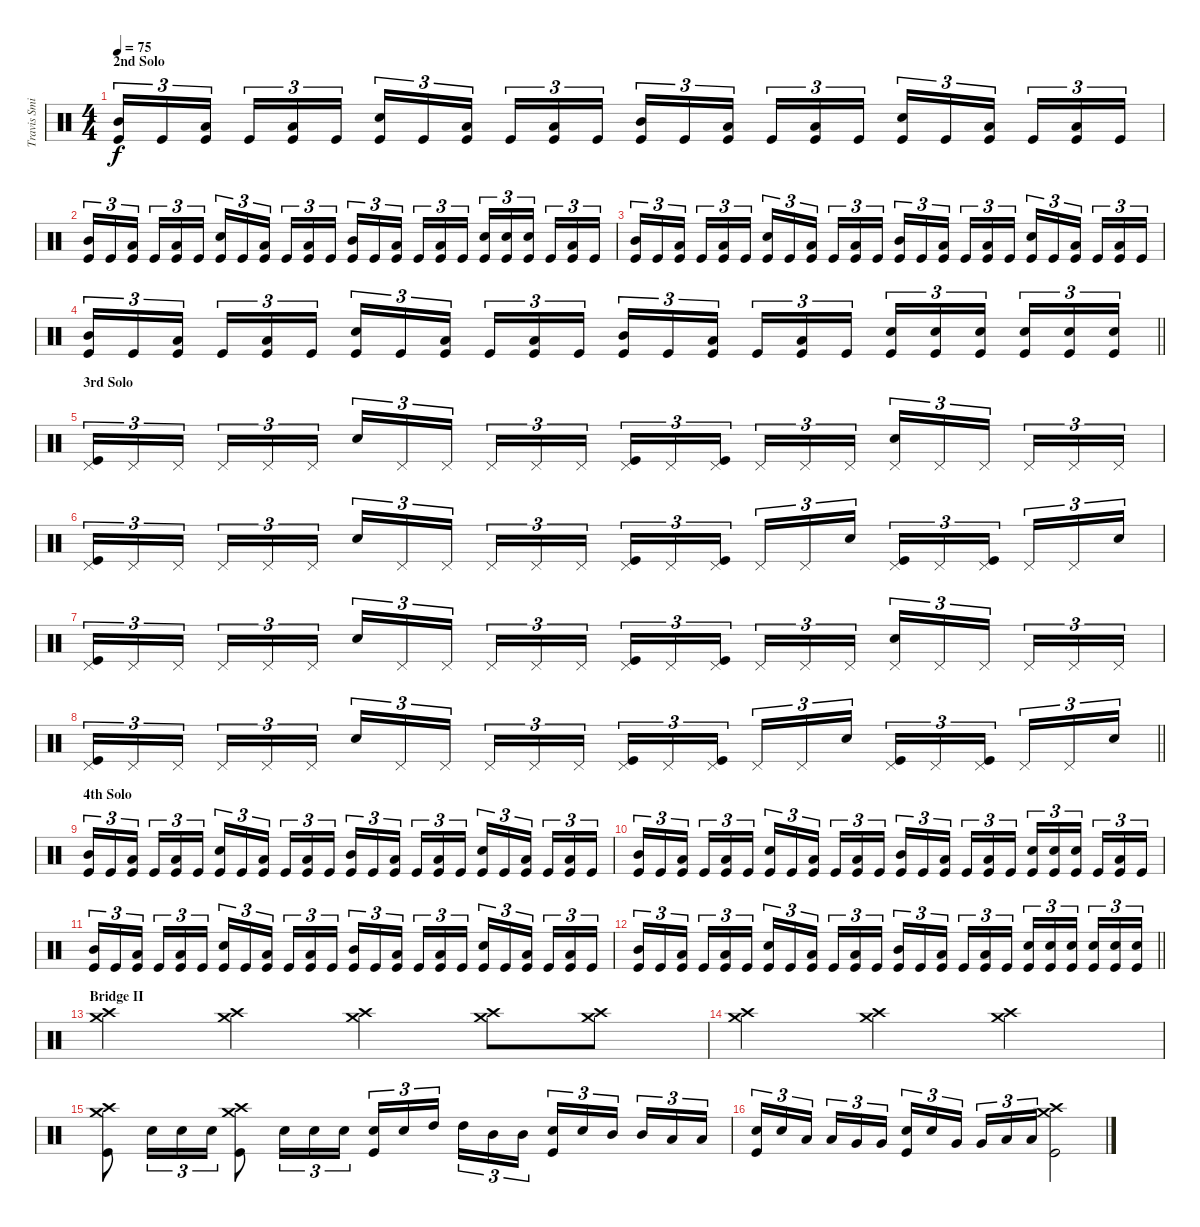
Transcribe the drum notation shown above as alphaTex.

\track ("Travis Smith" "Travis Smi") {instrument percussion}
\staff {score}
\articulation defaults
\ts (4 4)
\section ("" "2nd Solo")
\tempo 75
\clef neutral
\ks c
("Mid Tom (hit)" "Kick (hit)").16{tu (3 2) dy f} "Kick (hit)".16{tu (3 2)} ("Low Tom (hit)" "Kick (hit)").16{tu (3 2) beam splitsecondary} "Kick (hit)".16{tu (3 2)} ("Low Floor Tom (hit)" "Kick (hit)").16{tu (3 2)} "Kick (hit)".16{tu (3 2)} ("Snare (hit) 2" "Kick (hit)").16{tu (3 2)} "Kick (hit)".16{tu (3 2)} ("Low Tom (hit)" "Kick (hit)").16{tu (3 2) beam splitsecondary} "Kick (hit)".16{tu (3 2)} ("Low Floor Tom (hit)" "Kick (hit)").16{tu (3 2)} "Kick (hit)".16{tu (3 2)} ("Mid Tom (hit)" "Kick (hit)").16{tu (3 2)} "Kick (hit)".16{tu (3 2)} ("Low Tom (hit)" "Kick (hit)").16{tu (3 2) beam splitsecondary} "Kick (hit)".16{tu (3 2)} ("Low Floor Tom (hit)" "Kick (hit)").16{tu (3 2)} "Kick (hit)".16{tu (3 2)} ("Snare (hit) 2" "Kick (hit)").16{tu (3 2)} "Kick (hit)".16{tu (3 2)} ("Low Tom (hit)" "Kick (hit)").16{tu (3 2) beam splitsecondary} "Kick (hit)".16{tu (3 2)} ("Low Floor Tom (hit)" "Kick (hit)").16{tu (3 2)} "Kick (hit)".16{tu (3 2)} |
("Mid Tom (hit)" "Kick (hit)").16{tu (3 2)} "Kick (hit)".16{tu (3 2)} ("Low Tom (hit)" "Kick (hit)").16{tu (3 2) beam splitsecondary} "Kick (hit)".16{tu (3 2)} ("Low Floor Tom (hit)" "Kick (hit)").16{tu (3 2)} "Kick (hit)".16{tu (3 2)} ("Snare (hit) 2" "Kick (hit)").16{tu (3 2)} "Kick (hit)".16{tu (3 2)} ("Low Tom (hit)" "Kick (hit)").16{tu (3 2) beam splitsecondary} "Kick (hit)".16{tu (3 2)} ("Low Floor Tom (hit)" "Kick (hit)").16{tu (3 2)} "Kick (hit)".16{tu (3 2)} ("Mid Tom (hit)" "Kick (hit)").16{tu (3 2)} "Kick (hit)".16{tu (3 2)} ("Low Tom (hit)" "Kick (hit)").16{tu (3 2) beam splitsecondary} "Kick (hit)".16{tu (3 2)} ("Low Floor Tom (hit)" "Kick (hit)").16{tu (3 2)} "Kick (hit)".16{tu (3 2)} ("Snare (hit) 2" "Kick (hit)").16{tu (3 2)} ("Snare (hit) 2" "Kick (hit)").16{tu (3 2)} ("Snare (hit) 2" "Kick (hit)").16{tu (3 2) beam splitsecondary} "Kick (hit)".16{tu (3 2)} ("Low Floor Tom (hit)" "Kick (hit)").16{tu (3 2)} "Kick (hit)".16{tu (3 2)} |
("Mid Tom (hit)" "Kick (hit)").16{tu (3 2)} "Kick (hit)".16{tu (3 2)} ("Low Tom (hit)" "Kick (hit)").16{tu (3 2) beam splitsecondary} "Kick (hit)".16{tu (3 2)} ("Low Floor Tom (hit)" "Kick (hit)").16{tu (3 2)} "Kick (hit)".16{tu (3 2)} ("Snare (hit) 2" "Kick (hit)").16{tu (3 2)} "Kick (hit)".16{tu (3 2)} ("Low Tom (hit)" "Kick (hit)").16{tu (3 2) beam splitsecondary} "Kick (hit)".16{tu (3 2)} ("Low Floor Tom (hit)" "Kick (hit)").16{tu (3 2)} "Kick (hit)".16{tu (3 2)} ("Mid Tom (hit)" "Kick (hit)").16{tu (3 2)} "Kick (hit)".16{tu (3 2)} ("Low Tom (hit)" "Kick (hit)").16{tu (3 2) beam splitsecondary} "Kick (hit)".16{tu (3 2)} ("Low Floor Tom (hit)" "Kick (hit)").16{tu (3 2)} "Kick (hit)".16{tu (3 2)} ("Snare (hit) 2" "Kick (hit)").16{tu (3 2)} "Kick (hit)".16{tu (3 2)} ("Low Tom (hit)" "Kick (hit)").16{tu (3 2) beam splitsecondary} "Kick (hit)".16{tu (3 2)} ("Low Floor Tom (hit)" "Kick (hit)").16{tu (3 2)} "Kick (hit)".16{tu (3 2)} |
\barLineRight lightlight
("Mid Tom (hit)" "Kick (hit)").16{tu (3 2)} "Kick (hit)".16{tu (3 2)} ("Low Tom (hit)" "Kick (hit)").16{tu (3 2) beam splitsecondary} "Kick (hit)".16{tu (3 2)} ("Low Floor Tom (hit)" "Kick (hit)").16{tu (3 2)} "Kick (hit)".16{tu (3 2)} ("Snare (hit) 2" "Kick (hit)").16{tu (3 2)} "Kick (hit)".16{tu (3 2)} ("Low Tom (hit)" "Kick (hit)").16{tu (3 2) beam splitsecondary} "Kick (hit)".16{tu (3 2)} ("Low Floor Tom (hit)" "Kick (hit)").16{tu (3 2)} "Kick (hit)".16{tu (3 2)} ("Mid Tom (hit)" "Kick (hit)").16{tu (3 2)} "Kick (hit)".16{tu (3 2)} ("Low Tom (hit)" "Kick (hit)").16{tu (3 2) beam splitsecondary} "Kick (hit)".16{tu (3 2)} ("Low Floor Tom (hit)" "Kick (hit)").16{tu (3 2)} "Kick (hit)".16{tu (3 2)} ("Snare (hit) 2" "Kick (hit)").16{tu (3 2)} ("Snare (hit) 2" "Kick (hit)").16{tu (3 2)} ("Snare (hit) 2" "Kick (hit)").16{tu (3 2) beam splitsecondary} ("Snare (hit) 2" "Kick (hit)").16{tu (3 2)} ("Snare (hit) 2" "Kick (hit)").16{tu (3 2)} ("Snare (hit) 2" "Kick (hit)").16{tu (3 2)} |
\section ("" "3rd Solo")
("Pedal Hi-Hat (hit)" "Kick (hit)").16{tu (3 2)} "Pedal Hi-Hat (hit)".16{tu (3 2)} "Pedal Hi-Hat (hit)".16{tu (3 2) beam splitsecondary} "Pedal Hi-Hat (hit)".16{tu (3 2)} "Pedal Hi-Hat (hit)".16{tu (3 2)} "Pedal Hi-Hat (hit)".16{tu (3 2)} "Snare (hit) 2".16{tu (3 2)} "Pedal Hi-Hat (hit)".16{tu (3 2)} "Pedal Hi-Hat (hit)".16{tu (3 2) beam splitsecondary} "Pedal Hi-Hat (hit)".16{tu (3 2)} "Pedal Hi-Hat (hit)".16{tu (3 2)} "Pedal Hi-Hat (hit)".16{tu (3 2)} ("Pedal Hi-Hat (hit)" "Kick (hit)").16{tu (3 2)} "Pedal Hi-Hat (hit)".16{tu (3 2)} ("Pedal Hi-Hat (hit)" "Kick (hit)").16{tu (3 2) beam splitsecondary} "Pedal Hi-Hat (hit)".16{tu (3 2)} "Pedal Hi-Hat (hit)".16{tu (3 2)} "Pedal Hi-Hat (hit)".16{tu (3 2)} ("Pedal Hi-Hat (hit)" "Snare (hit) 2").16{tu (3 2)} "Pedal Hi-Hat (hit)".16{tu (3 2)} "Pedal Hi-Hat (hit)".16{tu (3 2) beam splitsecondary} "Pedal Hi-Hat (hit)".16{tu (3 2)} "Pedal Hi-Hat (hit)".16{tu (3 2)} "Pedal Hi-Hat (hit)".16{tu (3 2)} |
("Pedal Hi-Hat (hit)" "Kick (hit)").16{tu (3 2)} "Pedal Hi-Hat (hit)".16{tu (3 2)} "Pedal Hi-Hat (hit)".16{tu (3 2) beam splitsecondary} "Pedal Hi-Hat (hit)".16{tu (3 2)} "Pedal Hi-Hat (hit)".16{tu (3 2)} "Pedal Hi-Hat (hit)".16{tu (3 2)} "Snare (hit) 2".16{tu (3 2)} "Pedal Hi-Hat (hit)".16{tu (3 2)} "Pedal Hi-Hat (hit)".16{tu (3 2) beam splitsecondary} "Pedal Hi-Hat (hit)".16{tu (3 2)} "Pedal Hi-Hat (hit)".16{tu (3 2)} "Pedal Hi-Hat (hit)".16{tu (3 2)} ("Pedal Hi-Hat (hit)" "Kick (hit)").16{tu (3 2)} "Pedal Hi-Hat (hit)".16{tu (3 2)} ("Pedal Hi-Hat (hit)" "Kick (hit)").16{tu (3 2) beam splitsecondary} "Pedal Hi-Hat (hit)".16{tu (3 2)} "Pedal Hi-Hat (hit)".16{tu (3 2)} "Snare (hit) 2".16{tu (3 2)} ("Pedal Hi-Hat (hit)" "Kick (hit)").16{tu (3 2)} "Pedal Hi-Hat (hit)".16{tu (3 2)} ("Pedal Hi-Hat (hit)" "Kick (hit)").16{tu (3 2) beam splitsecondary} "Pedal Hi-Hat (hit)".16{tu (3 2)} "Pedal Hi-Hat (hit)".16{tu (3 2)} "Snare (hit) 2".16{tu (3 2)} |
("Pedal Hi-Hat (hit)" "Kick (hit)").16{tu (3 2)} "Pedal Hi-Hat (hit)".16{tu (3 2)} "Pedal Hi-Hat (hit)".16{tu (3 2) beam splitsecondary} "Pedal Hi-Hat (hit)".16{tu (3 2)} "Pedal Hi-Hat (hit)".16{tu (3 2)} "Pedal Hi-Hat (hit)".16{tu (3 2)} "Snare (hit) 2".16{tu (3 2)} "Pedal Hi-Hat (hit)".16{tu (3 2)} "Pedal Hi-Hat (hit)".16{tu (3 2) beam splitsecondary} "Pedal Hi-Hat (hit)".16{tu (3 2)} "Pedal Hi-Hat (hit)".16{tu (3 2)} "Pedal Hi-Hat (hit)".16{tu (3 2)} ("Pedal Hi-Hat (hit)" "Kick (hit)").16{tu (3 2)} "Pedal Hi-Hat (hit)".16{tu (3 2)} ("Pedal Hi-Hat (hit)" "Kick (hit)").16{tu (3 2) beam splitsecondary} "Pedal Hi-Hat (hit)".16{tu (3 2)} "Pedal Hi-Hat (hit)".16{tu (3 2)} "Pedal Hi-Hat (hit)".16{tu (3 2)} ("Pedal Hi-Hat (hit)" "Snare (hit) 2").16{tu (3 2)} "Pedal Hi-Hat (hit)".16{tu (3 2)} "Pedal Hi-Hat (hit)".16{tu (3 2) beam splitsecondary} "Pedal Hi-Hat (hit)".16{tu (3 2)} "Pedal Hi-Hat (hit)".16{tu (3 2)} "Pedal Hi-Hat (hit)".16{tu (3 2)} |
\barLineRight lightlight
("Pedal Hi-Hat (hit)" "Kick (hit)").16{tu (3 2)} "Pedal Hi-Hat (hit)".16{tu (3 2)} "Pedal Hi-Hat (hit)".16{tu (3 2) beam splitsecondary} "Pedal Hi-Hat (hit)".16{tu (3 2)} "Pedal Hi-Hat (hit)".16{tu (3 2)} "Pedal Hi-Hat (hit)".16{tu (3 2)} "Snare (hit) 2".16{tu (3 2)} "Pedal Hi-Hat (hit)".16{tu (3 2)} "Pedal Hi-Hat (hit)".16{tu (3 2) beam splitsecondary} "Pedal Hi-Hat (hit)".16{tu (3 2)} "Pedal Hi-Hat (hit)".16{tu (3 2)} "Pedal Hi-Hat (hit)".16{tu (3 2)} ("Pedal Hi-Hat (hit)" "Kick (hit)").16{tu (3 2)} "Pedal Hi-Hat (hit)".16{tu (3 2)} ("Pedal Hi-Hat (hit)" "Kick (hit)").16{tu (3 2) beam splitsecondary} "Pedal Hi-Hat (hit)".16{tu (3 2)} "Pedal Hi-Hat (hit)".16{tu (3 2)} "Snare (hit) 2".16{tu (3 2)} ("Pedal Hi-Hat (hit)" "Kick (hit)").16{tu (3 2)} "Pedal Hi-Hat (hit)".16{tu (3 2)} ("Pedal Hi-Hat (hit)" "Kick (hit)").16{tu (3 2) beam splitsecondary} "Pedal Hi-Hat (hit)".16{tu (3 2)} "Pedal Hi-Hat (hit)".16{tu (3 2)} "Snare (hit) 2".16{tu (3 2)} |
\section ("" "4th Solo")
("Mid Tom (hit)" "Kick (hit)").16{tu (3 2)} "Kick (hit)".16{tu (3 2)} ("Low Tom (hit)" "Kick (hit)").16{tu (3 2) beam splitsecondary} "Kick (hit)".16{tu (3 2)} ("Low Floor Tom (hit)" "Kick (hit)").16{tu (3 2)} "Kick (hit)".16{tu (3 2)} ("Snare (hit) 2" "Kick (hit)").16{tu (3 2)} "Kick (hit)".16{tu (3 2)} ("Low Tom (hit)" "Kick (hit)").16{tu (3 2) beam splitsecondary} "Kick (hit)".16{tu (3 2)} ("Low Floor Tom (hit)" "Kick (hit)").16{tu (3 2)} "Kick (hit)".16{tu (3 2)} ("Mid Tom (hit)" "Kick (hit)").16{tu (3 2)} "Kick (hit)".16{tu (3 2)} ("Low Tom (hit)" "Kick (hit)").16{tu (3 2) beam splitsecondary} "Kick (hit)".16{tu (3 2)} ("Low Floor Tom (hit)" "Kick (hit)").16{tu (3 2)} "Kick (hit)".16{tu (3 2)} ("Snare (hit) 2" "Kick (hit)").16{tu (3 2)} "Kick (hit)".16{tu (3 2)} ("Low Tom (hit)" "Kick (hit)").16{tu (3 2) beam splitsecondary} "Kick (hit)".16{tu (3 2)} ("Low Floor Tom (hit)" "Kick (hit)").16{tu (3 2)} "Kick (hit)".16{tu (3 2)} |
("Mid Tom (hit)" "Kick (hit)").16{tu (3 2)} "Kick (hit)".16{tu (3 2)} ("Low Tom (hit)" "Kick (hit)").16{tu (3 2) beam splitsecondary} "Kick (hit)".16{tu (3 2)} ("Low Floor Tom (hit)" "Kick (hit)").16{tu (3 2)} "Kick (hit)".16{tu (3 2)} ("Snare (hit) 2" "Kick (hit)").16{tu (3 2)} "Kick (hit)".16{tu (3 2)} ("Low Tom (hit)" "Kick (hit)").16{tu (3 2) beam splitsecondary} "Kick (hit)".16{tu (3 2)} ("Low Floor Tom (hit)" "Kick (hit)").16{tu (3 2)} "Kick (hit)".16{tu (3 2)} ("Mid Tom (hit)" "Kick (hit)").16{tu (3 2)} "Kick (hit)".16{tu (3 2)} ("Low Tom (hit)" "Kick (hit)").16{tu (3 2) beam splitsecondary} "Kick (hit)".16{tu (3 2)} ("Low Floor Tom (hit)" "Kick (hit)").16{tu (3 2)} "Kick (hit)".16{tu (3 2)} ("Snare (hit) 2" "Kick (hit)").16{tu (3 2)} ("Snare (hit) 2" "Kick (hit)").16{tu (3 2)} ("Snare (hit) 2" "Kick (hit)").16{tu (3 2) beam splitsecondary} "Kick (hit)".16{tu (3 2)} ("Low Floor Tom (hit)" "Kick (hit)").16{tu (3 2)} "Kick (hit)".16{tu (3 2)} |
("Mid Tom (hit)" "Kick (hit)").16{tu (3 2)} "Kick (hit)".16{tu (3 2)} ("Low Tom (hit)" "Kick (hit)").16{tu (3 2) beam splitsecondary} "Kick (hit)".16{tu (3 2)} ("Low Floor Tom (hit)" "Kick (hit)").16{tu (3 2)} "Kick (hit)".16{tu (3 2)} ("Snare (hit) 2" "Kick (hit)").16{tu (3 2)} "Kick (hit)".16{tu (3 2)} ("Low Tom (hit)" "Kick (hit)").16{tu (3 2) beam splitsecondary} "Kick (hit)".16{tu (3 2)} ("Low Floor Tom (hit)" "Kick (hit)").16{tu (3 2)} "Kick (hit)".16{tu (3 2)} ("Mid Tom (hit)" "Kick (hit)").16{tu (3 2)} "Kick (hit)".16{tu (3 2)} ("Low Tom (hit)" "Kick (hit)").16{tu (3 2) beam splitsecondary} "Kick (hit)".16{tu (3 2)} ("Low Floor Tom (hit)" "Kick (hit)").16{tu (3 2)} "Kick (hit)".16{tu (3 2)} ("Snare (hit) 2" "Kick (hit)").16{tu (3 2)} "Kick (hit)".16{tu (3 2)} ("Low Tom (hit)" "Kick (hit)").16{tu (3 2) beam splitsecondary} "Kick (hit)".16{tu (3 2)} ("Low Floor Tom (hit)" "Kick (hit)").16{tu (3 2)} "Kick (hit)".16{tu (3 2)} |
\barLineRight lightlight
("Mid Tom (hit)" "Kick (hit)").16{tu (3 2)} "Kick (hit)".16{tu (3 2)} ("Low Tom (hit)" "Kick (hit)").16{tu (3 2) beam splitsecondary} "Kick (hit)".16{tu (3 2)} ("Low Floor Tom (hit)" "Kick (hit)").16{tu (3 2)} "Kick (hit)".16{tu (3 2)} ("Snare (hit) 2" "Kick (hit)").16{tu (3 2)} "Kick (hit)".16{tu (3 2)} ("Low Tom (hit)" "Kick (hit)").16{tu (3 2) beam splitsecondary} "Kick (hit)".16{tu (3 2)} ("Low Floor Tom (hit)" "Kick (hit)").16{tu (3 2)} "Kick (hit)".16{tu (3 2)} ("Mid Tom (hit)" "Kick (hit)").16{tu (3 2)} "Kick (hit)".16{tu (3 2)} ("Low Tom (hit)" "Kick (hit)").16{tu (3 2) beam splitsecondary} "Kick (hit)".16{tu (3 2)} ("Low Floor Tom (hit)" "Kick (hit)").16{tu (3 2)} "Kick (hit)".16{tu (3 2)} ("Snare (hit) 2" "Kick (hit)").16{tu (3 2)} ("Snare (hit) 2" "Kick (hit)").16{tu (3 2)} ("Snare (hit) 2" "Kick (hit)").16{tu (3 2) beam splitsecondary} ("Snare (hit) 2" "Kick (hit)").16{tu (3 2)} ("Snare (hit) 2" "Kick (hit)").16{tu (3 2)} ("Snare (hit) 2" "Kick (hit)").16{tu (3 2)} |
\section ("" "Bridge II")
("Crash medium (hit)" "Crash high (hit)").4 ("Crash medium (hit)" "Crash high (hit)").4 ("Crash medium (hit)" "Crash high (hit)").4 ("Crash medium (hit)" "Crash high (hit)").8 ("Crash medium (hit)" "Crash high (hit)").8 |
("Crash medium (hit)" "Crash high (hit)").4 ("Crash medium (hit)" "Crash high (hit)").4 ("Crash medium (hit)" "Crash high (hit)").2 |
("Crash medium (hit)" "Crash high (hit)" "Kick (hit)").8 "Snare (hit) 2".16{tu (3 2)} "Snare (hit) 2".16{tu (3 2)} "Snare (hit) 2".16{tu (3 2)} ("Crash medium (hit)" "Crash high (hit)" "Kick (hit)").8 "Snare (hit) 2".16{tu (3 2)} "Snare (hit) 2".16{tu (3 2)} "Snare (hit) 2".16{tu (3 2)} ("Snare (hit) 2" "Kick (hit)").16{tu (3 2)} "Snare (hit) 2".16{tu (3 2)} "High Tom (hit)".16{tu (3 2) beam splitsecondary} "High Tom (hit)".16{tu (3 2)} "Mid Tom (hit)".16{tu (3 2)} "Mid Tom (hit)".16{tu (3 2)} ("Snare (hit) 2" "Kick (hit)").16{tu (3 2)} "Snare (hit) 2".16{tu (3 2)} "Mid Tom (hit)".16{tu (3 2) beam splitsecondary} "Mid Tom (hit)".16{tu (3 2)} "Low Tom (hit)".16{tu (3 2)} "Low Tom (hit)".16{tu (3 2)} |
("Snare (hit) 2" "Kick (hit)").16{tu (3 2)} "Snare (hit) 2".16{tu (3 2)} "Low Tom (hit)".16{tu (3 2) beam splitsecondary} "Low Tom (hit)".16{tu (3 2)} "Very Low Tom (hit)".16{tu (3 2)} "Very Low Tom (hit)".16{tu (3 2)} ("Snare (hit) 2" "Kick (hit)").16{tu (3 2)} "Snare (hit) 2".16{tu (3 2)} "Very Low Tom (hit)".16{tu (3 2) beam splitsecondary} "Very Low Tom (hit)".16{tu (3 2)} "Low Floor Tom (hit)".16{tu (3 2)} "Low Floor Tom (hit)".16{tu (3 2)} ("Crash medium (hit)" "Crash high (hit)" "Kick (hit)").2
